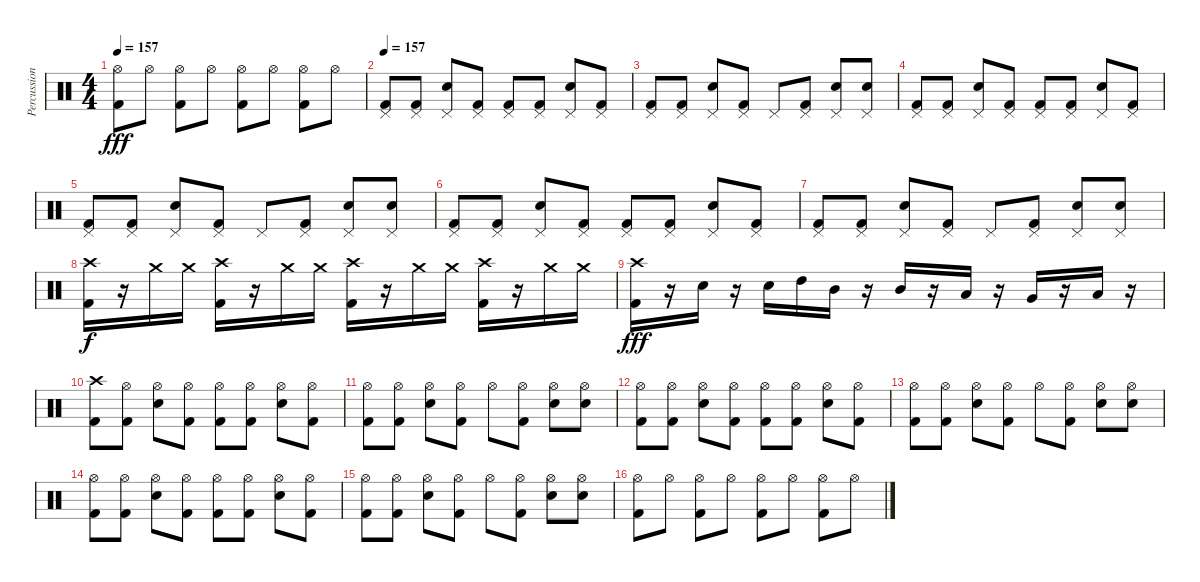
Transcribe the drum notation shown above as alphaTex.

\track ("Percussion" "Percussion") {instrument percussion}
\staff {score}
\articulation defaults
\ts (4 4)
\tempo 157
\clef neutral
\ks c
("Hi-Hat (open)" "Kick (hit) 2").8{dy fff} "Hi-Hat (open)".8 ("Hi-Hat (open)" "Kick (hit) 2").8 "Hi-Hat (open)".8 ("Hi-Hat (open)" "Kick (hit) 2").8 "Hi-Hat (open)".8 ("Hi-Hat (open)" "Kick (hit) 2").8 "Hi-Hat (open)".8 |
\tempo 157
("Pedal Hi-Hat (hit)" "Kick (hit) 2").8 ("Pedal Hi-Hat (hit)" "Kick (hit) 2").8 ("Pedal Hi-Hat (hit)" "Electric Snare (hit)").8 ("Pedal Hi-Hat (hit)" "Kick (hit) 2").8 ("Pedal Hi-Hat (hit)" "Kick (hit) 2").8 ("Pedal Hi-Hat (hit)" "Kick (hit) 2").8 ("Pedal Hi-Hat (hit)" "Electric Snare (hit)").8 ("Pedal Hi-Hat (hit)" "Kick (hit) 2").8 |
("Pedal Hi-Hat (hit)" "Kick (hit) 2").8 ("Pedal Hi-Hat (hit)" "Kick (hit) 2").8 ("Pedal Hi-Hat (hit)" "Electric Snare (hit)").8 ("Pedal Hi-Hat (hit)" "Kick (hit) 2").8 "Pedal Hi-Hat (hit)".8 ("Pedal Hi-Hat (hit)" "Kick (hit) 2").8 ("Pedal Hi-Hat (hit)" "Electric Snare (hit)").8 ("Pedal Hi-Hat (hit)" "Electric Snare (hit)").8 |
("Pedal Hi-Hat (hit)" "Kick (hit) 2").8 ("Pedal Hi-Hat (hit)" "Kick (hit) 2").8 ("Pedal Hi-Hat (hit)" "Electric Snare (hit)").8 ("Pedal Hi-Hat (hit)" "Kick (hit) 2").8 ("Pedal Hi-Hat (hit)" "Kick (hit) 2").8 ("Pedal Hi-Hat (hit)" "Kick (hit) 2").8 ("Pedal Hi-Hat (hit)" "Electric Snare (hit)").8 ("Pedal Hi-Hat (hit)" "Kick (hit) 2").8 |
("Pedal Hi-Hat (hit)" "Kick (hit) 2").8 ("Pedal Hi-Hat (hit)" "Kick (hit) 2").8 ("Pedal Hi-Hat (hit)" "Electric Snare (hit)").8 ("Pedal Hi-Hat (hit)" "Kick (hit) 2").8 "Pedal Hi-Hat (hit)".8 ("Pedal Hi-Hat (hit)" "Kick (hit) 2").8 ("Pedal Hi-Hat (hit)" "Electric Snare (hit)").8 ("Pedal Hi-Hat (hit)" "Electric Snare (hit)").8 |
("Pedal Hi-Hat (hit)" "Kick (hit) 2").8 ("Pedal Hi-Hat (hit)" "Kick (hit) 2").8 ("Pedal Hi-Hat (hit)" "Electric Snare (hit)").8 ("Pedal Hi-Hat (hit)" "Kick (hit) 2").8 ("Pedal Hi-Hat (hit)" "Kick (hit) 2").8 ("Pedal Hi-Hat (hit)" "Kick (hit) 2").8 ("Pedal Hi-Hat (hit)" "Electric Snare (hit)").8 ("Pedal Hi-Hat (hit)" "Kick (hit) 2").8 |
("Pedal Hi-Hat (hit)" "Kick (hit) 2").8 ("Pedal Hi-Hat (hit)" "Kick (hit) 2").8 ("Pedal Hi-Hat (hit)" "Electric Snare (hit)").8 ("Pedal Hi-Hat (hit)" "Kick (hit) 2").8 "Pedal Hi-Hat (hit)".8 ("Pedal Hi-Hat (hit)" "Kick (hit) 2").8 ("Pedal Hi-Hat (hit)" "Electric Snare (hit)").8 ("Pedal Hi-Hat (hit)" "Electric Snare (hit)").8 |
("Crash high (hit)" "Kick (hit) 2").16{dy f} r.16 "Crash medium (hit)".16 "Crash medium (hit)".16 ("Crash high (hit)" "Kick (hit) 2").16 r.16 "Crash medium (hit)".16 "Crash medium (hit)".16 ("Crash high (hit)" "Kick (hit) 2").16 r.16 "Crash medium (hit)".16 "Crash medium (hit)".16 ("Crash high (hit)" "Kick (hit) 2").16 r.16 "Crash medium (hit)".16 "Crash medium (hit)".16 |
("Crash high (hit)" "Kick (hit) 2").16{dy fff} r.16 "Electric Snare (hit)".16 r.16 "Electric Snare (hit)".16 "High Tom (hit)".16 "Mid Tom (hit)".16 r.16 "Mid Tom (hit)".16 r.16 "Low Tom (hit)".16 r.16 "Very Low Tom (hit)".16 r.16 "Low Floor Tom (hit)".16 r.16 |
("Crash high (hit)" "Kick (hit) 2").8 ("Hi-Hat (open)" "Kick (hit) 2").8 ("Hi-Hat (open)" "Electric Snare (hit)").8 ("Hi-Hat (open)" "Kick (hit) 2").8 ("Hi-Hat (open)" "Kick (hit) 2").8 ("Hi-Hat (open)" "Kick (hit) 2").8 ("Hi-Hat (open)" "Electric Snare (hit)").8 ("Hi-Hat (open)" "Kick (hit) 2").8 |
("Hi-Hat (open)" "Kick (hit) 2").8 ("Hi-Hat (open)" "Kick (hit) 2").8 ("Hi-Hat (open)" "Electric Snare (hit)").8 ("Hi-Hat (open)" "Kick (hit) 2").8 "Hi-Hat (open)".8 ("Hi-Hat (open)" "Kick (hit) 2").8 ("Hi-Hat (open)" "Electric Snare (hit)").8 ("Hi-Hat (open)" "Electric Snare (hit)").8 |
("Hi-Hat (open)" "Kick (hit) 2").8 ("Hi-Hat (open)" "Kick (hit) 2").8 ("Hi-Hat (open)" "Electric Snare (hit)").8 ("Hi-Hat (open)" "Kick (hit) 2").8 ("Hi-Hat (open)" "Kick (hit) 2").8 ("Hi-Hat (open)" "Kick (hit) 2").8 ("Hi-Hat (open)" "Electric Snare (hit)").8 ("Hi-Hat (open)" "Kick (hit) 2").8 |
("Hi-Hat (open)" "Kick (hit) 2").8 ("Hi-Hat (open)" "Kick (hit) 2").8 ("Hi-Hat (open)" "Electric Snare (hit)").8 ("Hi-Hat (open)" "Kick (hit) 2").8 "Hi-Hat (open)".8 ("Hi-Hat (open)" "Kick (hit) 2").8 ("Hi-Hat (open)" "Electric Snare (hit)").8 ("Hi-Hat (open)" "Electric Snare (hit)").8 |
("Hi-Hat (open)" "Kick (hit) 2").8 ("Hi-Hat (open)" "Kick (hit) 2").8 ("Hi-Hat (open)" "Electric Snare (hit)").8 ("Hi-Hat (open)" "Kick (hit) 2").8 ("Hi-Hat (open)" "Kick (hit) 2").8 ("Hi-Hat (open)" "Kick (hit) 2").8 ("Hi-Hat (open)" "Electric Snare (hit)").8 ("Hi-Hat (open)" "Kick (hit) 2").8 |
("Hi-Hat (open)" "Kick (hit) 2").8 ("Hi-Hat (open)" "Kick (hit) 2").8 ("Hi-Hat (open)" "Electric Snare (hit)").8 ("Hi-Hat (open)" "Kick (hit) 2").8 "Hi-Hat (open)".8 ("Hi-Hat (open)" "Kick (hit) 2").8 ("Hi-Hat (open)" "Electric Snare (hit)").8 ("Hi-Hat (open)" "Electric Snare (hit)").8 |
("Hi-Hat (open)" "Kick (hit) 2").8 "Hi-Hat (open)".8 ("Hi-Hat (open)" "Kick (hit) 2").8 "Hi-Hat (open)".8 ("Hi-Hat (open)" "Kick (hit) 2").8 "Hi-Hat (open)".8 ("Hi-Hat (open)" "Kick (hit) 2").8 "Hi-Hat (open)".8
